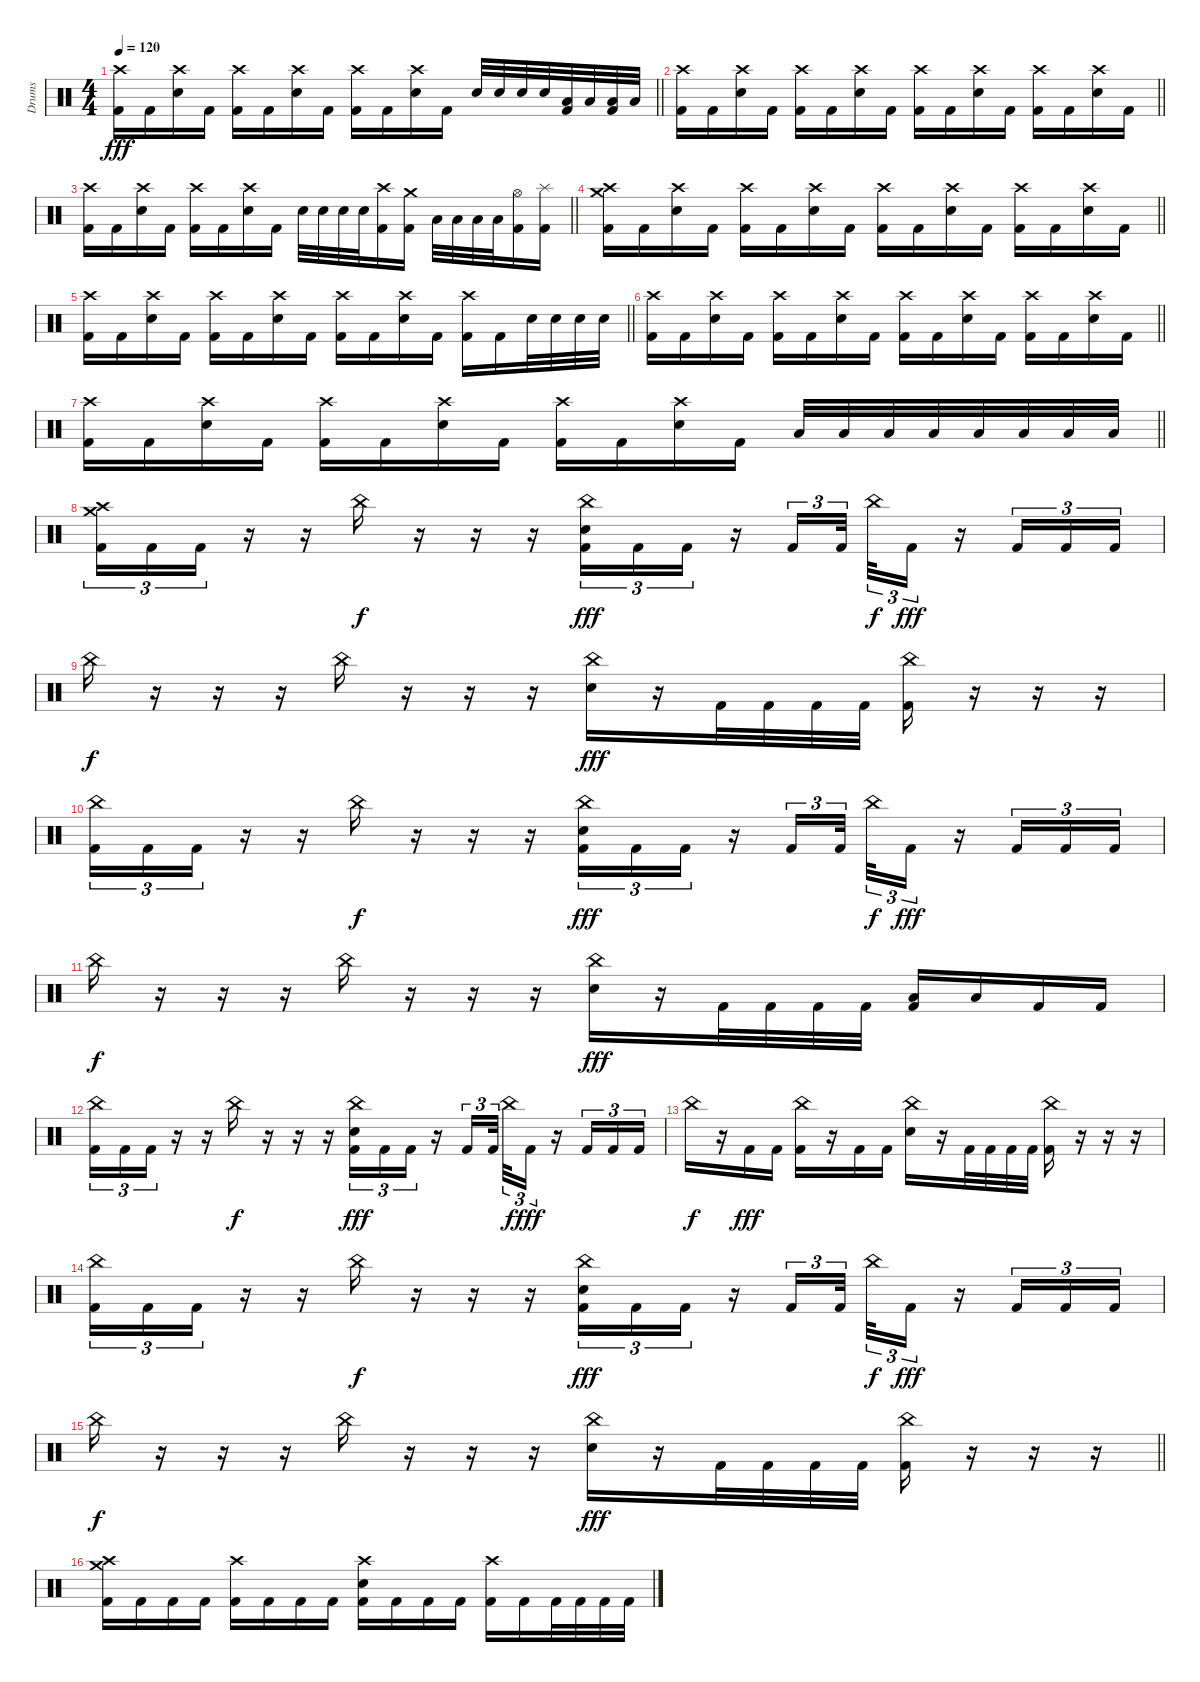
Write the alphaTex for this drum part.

\track ("Drums" "Drums") {instrument percussion}
\staff {score}
\articulation defaults
\ts (4 4)
\tempo 120
\clef neutral
\barLineRight lightlight
\ks c
("Crash high (hit)" "Kick (hit) 2").16{dy fff} "Kick (hit) 2".16 ("Crash high (hit)" "Electric Snare (hit)").16 "Kick (hit) 2".16 ("Crash high (hit)" "Kick (hit) 2").16 "Kick (hit) 2".16 ("Crash high (hit)" "Electric Snare (hit)").16 "Kick (hit) 2".16 ("Crash high (hit)" "Kick (hit) 2").16 "Kick (hit) 2".16 ("Crash high (hit)" "Electric Snare (hit)").16 "Kick (hit) 2".16 "Electric Snare (hit)".32 "Electric Snare (hit)".32 "Electric Snare (hit)".32 "Electric Snare (hit)".32 ("Low Tom (hit)" "Kick (hit) 2").32 "Low Tom (hit)".32 ("Low Tom (hit)" "Kick (hit) 2").32 "Low Tom (hit)".32 |
\barLineRight lightlight
("Crash high (hit)" "Kick (hit) 2").16 "Kick (hit) 2".16 ("Crash high (hit)" "Electric Snare (hit)").16 "Kick (hit) 2".16 ("Crash high (hit)" "Kick (hit) 2").16 "Kick (hit) 2".16 ("Crash high (hit)" "Electric Snare (hit)").16 "Kick (hit) 2".16 ("Crash high (hit)" "Kick (hit) 2").16 "Kick (hit) 2".16 ("Crash high (hit)" "Electric Snare (hit)").16 "Kick (hit) 2".16 ("Crash high (hit)" "Kick (hit) 2").16 "Kick (hit) 2".16 ("Crash high (hit)" "Electric Snare (hit)").16 "Kick (hit) 2".16 |
\barLineRight lightlight
("Crash high (hit)" "Kick (hit) 2").16 "Kick (hit) 2".16 ("Crash high (hit)" "Electric Snare (hit)").16 "Kick (hit) 2".16 ("Crash high (hit)" "Kick (hit) 2").16 "Kick (hit) 2".16 ("Crash high (hit)" "Electric Snare (hit)").16 "Kick (hit) 2".16 "Electric Snare (hit)".32 "Electric Snare (hit)".32 "Electric Snare (hit)".32 "Electric Snare (hit)".32 ("Crash high (hit)" "Kick (hit) 2").16 ("Crash medium (hit)" "Kick (hit) 2").16 "Low Tom (hit)".32 "Low Tom (hit)".32 "Low Tom (hit)".32 "Low Tom (hit)".32 ("Hi-Hat (open)" "Kick (hit) 2").16 ("Splash (hit)" "Kick (hit) 2").16 |
\barLineRight lightlight
("Crash high (hit)" "Crash medium (hit)" "Kick (hit) 2").16 "Kick (hit) 2".16 ("Crash high (hit)" "Electric Snare (hit)").16 "Kick (hit) 2".16 ("Crash high (hit)" "Kick (hit) 2").16 "Kick (hit) 2".16 ("Crash high (hit)" "Electric Snare (hit)").16 "Kick (hit) 2".16 ("Crash high (hit)" "Kick (hit) 2").16 "Kick (hit) 2".16 ("Crash high (hit)" "Electric Snare (hit)").16 "Kick (hit) 2".16 ("Crash high (hit)" "Kick (hit) 2").16 "Kick (hit) 2".16 ("Crash high (hit)" "Electric Snare (hit)").16 "Kick (hit) 2".16 |
\barLineRight lightlight
("Crash high (hit)" "Kick (hit) 2").16 "Kick (hit) 2".16 ("Crash high (hit)" "Electric Snare (hit)").16 "Kick (hit) 2".16 ("Crash high (hit)" "Kick (hit) 2").16 "Kick (hit) 2".16 ("Crash high (hit)" "Electric Snare (hit)").16 "Kick (hit) 2".16 ("Crash high (hit)" "Kick (hit) 2").16 "Kick (hit) 2".16 ("Crash high (hit)" "Electric Snare (hit)").16 "Kick (hit) 2".16 ("Crash high (hit)" "Kick (hit) 2").16 "Kick (hit) 2".16 "Electric Snare (hit)".32 "Electric Snare (hit)".32 "Electric Snare (hit)".32 "Electric Snare (hit)".32 |
\barLineRight lightlight
("Crash high (hit)" "Kick (hit) 2").16 "Kick (hit) 2".16 ("Crash high (hit)" "Electric Snare (hit)").16 "Kick (hit) 2".16 ("Crash high (hit)" "Kick (hit) 2").16 "Kick (hit) 2".16 ("Crash high (hit)" "Electric Snare (hit)").16 "Kick (hit) 2".16 ("Crash high (hit)" "Kick (hit) 2").16 "Kick (hit) 2".16 ("Crash high (hit)" "Electric Snare (hit)").16 "Kick (hit) 2".16 ("Crash high (hit)" "Kick (hit) 2").16 "Kick (hit) 2".16 ("Crash high (hit)" "Electric Snare (hit)").16 "Kick (hit) 2".16 |
\barLineRight lightlight
("Crash high (hit)" "Kick (hit) 2").16 "Kick (hit) 2".16 ("Crash high (hit)" "Electric Snare (hit)").16 "Kick (hit) 2".16 ("Crash high (hit)" "Kick (hit) 2").16 "Kick (hit) 2".16 ("Crash high (hit)" "Electric Snare (hit)").16 "Kick (hit) 2".16 ("Crash high (hit)" "Kick (hit) 2").16 "Kick (hit) 2".16 ("Crash high (hit)" "Electric Snare (hit)").16 "Kick (hit) 2".16 "Low Tom (hit)".32 "Low Tom (hit)".32 "Low Tom (hit)".32 "Low Tom (hit)".32 "Low Floor Tom (hit)".32 "Low Floor Tom (hit)".32 "Low Floor Tom (hit)".32 "Low Floor Tom (hit)".32 |
\section ("" "")
("Crash high (hit)" "Crash medium (hit)" "Kick (hit) 2").16{tu (3 2)} "Kick (hit) 2".16{tu (3 2)} "Kick (hit) 2".16{tu (3 2)} r.16 r.16 "China (hit)".16{dy f} r.16 r.16 r.16 ("China (hit)" "Electric Snare (hit)" "Kick (hit) 2").16{tu (3 2) dy fff} "Kick (hit) 2".16{tu (3 2)} "Kick (hit) 2".16{tu (3 2)} r.16 "Kick (hit) 2".16{tu (3 2)} "Kick (hit) 2".32{tu (3 2)} "China (hit)".32{tu (3 2) dy f} "Kick (hit) 2".16{tu (3 2) dy fff} r.16 "Kick (hit) 2".16{tu (3 2)} "Kick (hit) 2".16{tu (3 2)} "Kick (hit) 2".16{tu (3 2)} |
"China (hit)".16{dy f} r.16 r.16 r.16 "China (hit)".16 r.16 r.16 r.16 ("China (hit)" "Electric Snare (hit)").16{dy fff} r.16 "Kick (hit) 2".32 "Kick (hit) 2".32 "Kick (hit) 2".32 "Kick (hit) 2".32 ("China (hit)" "Kick (hit) 2").16 r.16 r.16 r.16 |
("China (hit)" "Kick (hit) 2").16{tu (3 2)} "Kick (hit) 2".16{tu (3 2)} "Kick (hit) 2".16{tu (3 2)} r.16 r.16 "China (hit)".16{dy f} r.16 r.16 r.16 ("China (hit)" "Electric Snare (hit)" "Kick (hit) 2").16{tu (3 2) dy fff} "Kick (hit) 2".16{tu (3 2)} "Kick (hit) 2".16{tu (3 2)} r.16 "Kick (hit) 2".16{tu (3 2)} "Kick (hit) 2".32{tu (3 2)} "China (hit)".32{tu (3 2) dy f} "Kick (hit) 2".16{tu (3 2) dy fff} r.16 "Kick (hit) 2".16{tu (3 2)} "Kick (hit) 2".16{tu (3 2)} "Kick (hit) 2".16{tu (3 2)} |
"China (hit)".16{dy f} r.16 r.16 r.16 "China (hit)".16 r.16 r.16 r.16 ("China (hit)" "Electric Snare (hit)").16{dy fff} r.16 "Kick (hit) 2".32 "Kick (hit) 2".32 "Kick (hit) 2".32 "Kick (hit) 2".32 ("Low Tom (hit)" "Kick (hit) 2").16 "Low Tom (hit)".16 "Kick (hit) 2".16 "Kick (hit) 2".16 |
("China (hit)" "Kick (hit) 2").16{tu (3 2)} "Kick (hit) 2".16{tu (3 2)} "Kick (hit) 2".16{tu (3 2)} r.16 r.16 "China (hit)".16{dy f} r.16 r.16 r.16 ("China (hit)" "Electric Snare (hit)" "Kick (hit) 2").16{tu (3 2) dy fff} "Kick (hit) 2".16{tu (3 2)} "Kick (hit) 2".16{tu (3 2)} r.16 "Kick (hit) 2".16{tu (3 2)} "Kick (hit) 2".32{tu (3 2)} "China (hit)".32{tu (3 2) dy f} "Kick (hit) 2".16{tu (3 2) dy fff} r.16 "Kick (hit) 2".16{tu (3 2)} "Kick (hit) 2".16{tu (3 2)} "Kick (hit) 2".16{tu (3 2)} |
"China (hit)".16{dy f} r.16 "Kick (hit) 2".16{dy fff} "Kick (hit) 2".16 ("China (hit)" "Kick (hit) 2").16 r.16 "Kick (hit) 2".16 "Kick (hit) 2".16 ("China (hit)" "Electric Snare (hit)").16 r.16 "Kick (hit) 2".32 "Kick (hit) 2".32 "Kick (hit) 2".32 "Kick (hit) 2".32 ("China (hit)" "Kick (hit) 2").16 r.16 r.16 r.16 |
("China (hit)" "Kick (hit) 2").16{tu (3 2)} "Kick (hit) 2".16{tu (3 2)} "Kick (hit) 2".16{tu (3 2)} r.16 r.16 "China (hit)".16{dy f} r.16 r.16 r.16 ("China (hit)" "Electric Snare (hit)" "Kick (hit) 2").16{tu (3 2) dy fff} "Kick (hit) 2".16{tu (3 2)} "Kick (hit) 2".16{tu (3 2)} r.16 "Kick (hit) 2".16{tu (3 2)} "Kick (hit) 2".32{tu (3 2)} "China (hit)".32{tu (3 2) dy f} "Kick (hit) 2".16{tu (3 2) dy fff} r.16 "Kick (hit) 2".16{tu (3 2)} "Kick (hit) 2".16{tu (3 2)} "Kick (hit) 2".16{tu (3 2)} |
\barLineRight lightlight "China (hit)".16{dy f}
r.16 r.16 r.16 "China (hit)".16 r.16 r.16 r.16 ("China (hit)" "Electric Snare (hit)").16{dy fff} r.16 "Kick (hit) 2".32 "Kick (hit) 2".32 "Kick (hit) 2".32 "Kick (hit) 2".32 ("China (hit)" "Kick (hit) 2").16 r.16 r.16 r.16 |
\section ("" "")
("Crash high (hit)" "Crash medium (hit)" "Kick (hit) 2").16 "Kick (hit) 2".16 "Kick (hit) 2".16 "Kick (hit) 2".16 ("Crash high (hit)" "Kick (hit) 2").16 "Kick (hit) 2".16 "Kick (hit) 2".16 "Kick (hit) 2".16 ("Crash high (hit)" "Electric Snare (hit)" "Kick (hit) 2").16 "Kick (hit) 2".16 "Kick (hit) 2".16 "Kick (hit) 2".16 ("Crash high (hit)" "Kick (hit) 2").16 "Kick (hit) 2".16 "Kick (hit) 2".32 "Kick (hit) 2".32 "Kick (hit) 2".32 "Kick (hit) 2".32
